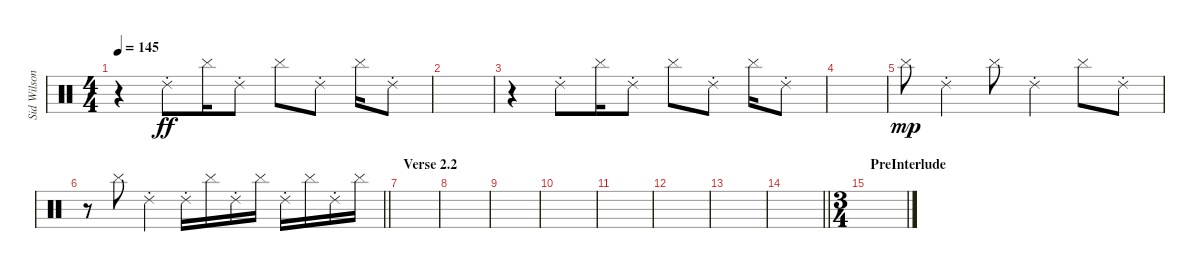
\track ("Sid Wilson" "Sid Wilson") {instrument percussion}
\staff {score}
\articulation defaults
\ts (4 4)
\tempo 145
\clef neutral
\ks c
r.4{dy ff} "Ride (choke) 2".8 "Cymbal (hit)".16 "Ride (choke) 2".8 "Cymbal (hit)".8 "Ride (choke) 2".8 "Cymbal (hit)".16 "Ride (choke) 2".8 |
|
r.4 "Ride (choke) 2".8 "Cymbal (hit)".16 "Ride (choke) 2".8 "Cymbal (hit)".8 "Ride (choke) 2".8 "Cymbal (hit)".16 "Ride (choke) 2".8 |
|
"Cymbal (hit)".8{dy mp} "Ride (choke) 2".4 "Cymbal (hit)".8 "Ride (choke) 2".4 "Cymbal (hit)".8 "Ride (choke) 2".8 |
\barLineRight lightlight
r.8 "Cymbal (hit)".8 "Ride (choke) 2".4 "Ride (choke) 2".16 "Cymbal (hit)".16 "Ride (choke) 2".16 "Cymbal (hit)".16 "Ride (choke) 2".16 "Cymbal (hit)".16 "Ride (choke) 2".16 "Cymbal (hit)".16 |
\section ("" "Verse 2.2")
|
|
|
|
|
|
|
\barLineRight lightlight
|
\ts (3 4)
\section ("" "PreInterlude")
